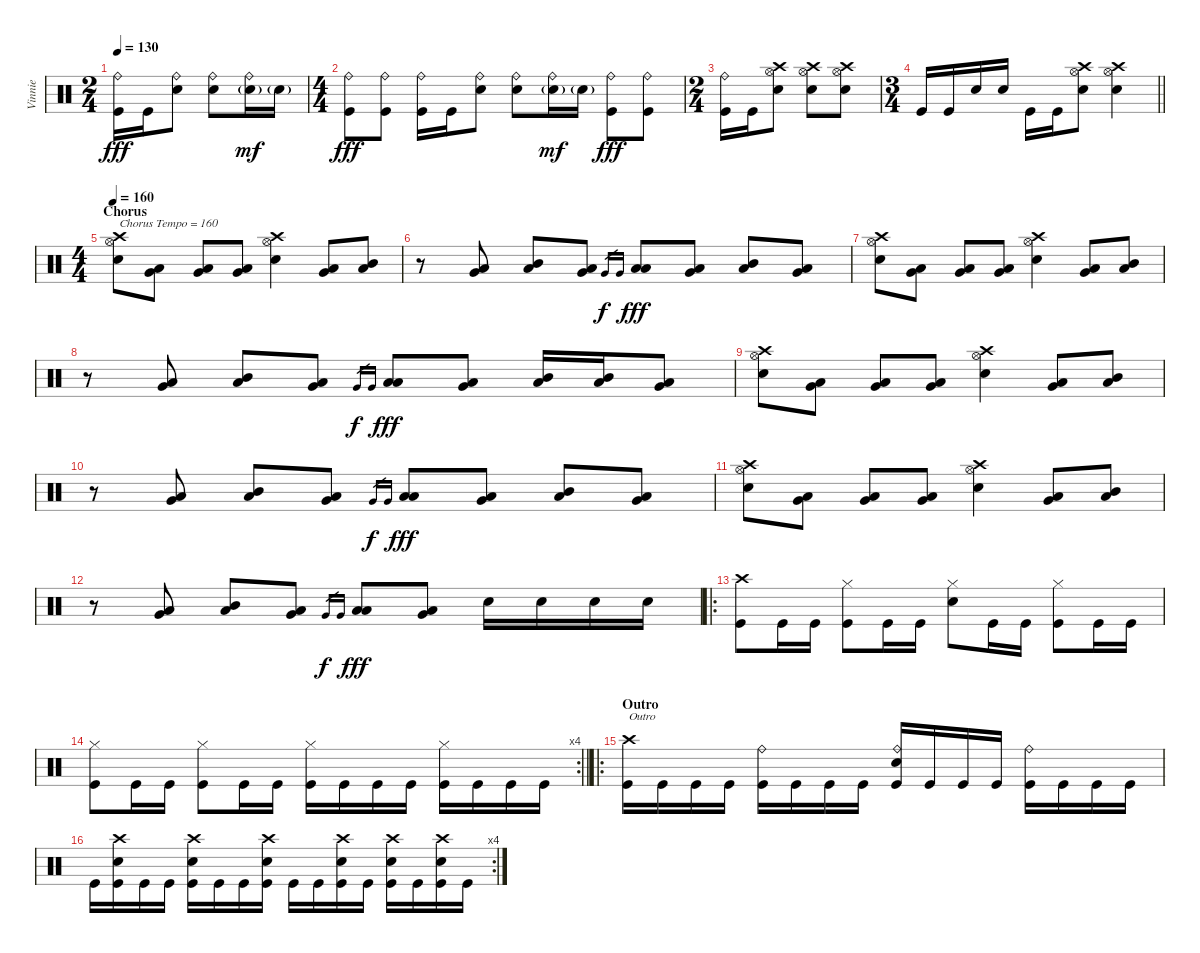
\track ("Vinnie" "Vinnie") {instrument percussion}
\staff {score}
\articulation defaults
\ts (2 4)
\tempo 130
\clef neutral
\ks c
("Kick (hit)" "Ride (bell)").16{dy fff} "Kick (hit)".16 ("Electric Snare (hit)" "Ride (bell)").8 ("Electric Snare (hit)" "Ride (bell)").8 ("Electric Snare (hit)"{g} "Ride (bell)").16{dy mf} "Electric Snare (hit)"{g}.16 |
\ts (4 4)
("Kick (hit)" "Ride (bell)").8{dy fff} ("Kick (hit)" "Ride (bell)").8 ("Kick (hit)" "Ride (bell)").16 "Kick (hit)".16 ("Electric Snare (hit)" "Ride (bell)").8 ("Electric Snare (hit)" "Ride (bell)").8 ("Electric Snare (hit)"{g} "Ride (bell)").16{dy mf} "Electric Snare (hit)"{g}.16 ("Kick (hit)" "Ride (bell)").8{dy fff} ("Kick (hit)" "Ride (bell)").8 |
\ts (2 4)
("Kick (hit)" "Ride (bell)").16 "Kick (hit)".16 ("Electric Snare (hit)" "Crash high (hit)" "Hi-Hat (open)").8 ("Electric Snare (hit)" "Crash high (hit)" "Hi-Hat (open)").8 ("Electric Snare (hit)" "Crash high (hit)" "Hi-Hat (open)").8 |
\ts (3 4)
\barLineRight lightlight "Kick (hit)".16 "Kick (hit)".16 "Electric Snare (hit)".16 "Electric Snare (hit)".16 "Kick (hit)".16 "Kick (hit)".16
("Electric Snare (hit)" "Crash high (hit)" "Hi-Hat (open)").8 ("Electric Snare (hit)" "Crash high (hit)" "Hi-Hat (open)").4 |
\ts (4 4)
\section ("" "Chorus")
\tempo 160
("Electric Snare (hit)" "Crash high (hit)" "Hi-Hat (open)").8{txt "Chorus Tempo = 160"} ("Low Tom (hit)" "Very Low Tom (hit)").8 ("Low Tom (hit)" "Very Low Tom (hit)").8 ("Low Tom (hit)" "Very Low Tom (hit)").8 ("Electric Snare (hit)" "Crash high (hit)" "Hi-Hat (open)").4 ("Low Tom (hit)" "Very Low Tom (hit)").8 ("Mid Tom (hit)" "Low Tom (hit)").8 |
r.8 ("Low Tom (hit)" "Very Low Tom (hit)").8 ("Mid Tom (hit)" "Low Tom (hit)").8 ("Low Tom (hit)" "Very Low Tom (hit)").8 "Very Low Tom (hit)".16{gr dy f} "Very Low Tom (hit)".16{gr} ("Low Tom (hit)" "Low Tom (hit)").8{dy fff} ("Low Tom (hit)" "Very Low Tom (hit)").8 ("Mid Tom (hit)" "Low Tom (hit)").8 ("Low Tom (hit)" "Very Low Tom (hit)").8 |
("Electric Snare (hit)" "Crash high (hit)" "Hi-Hat (open)").8 ("Low Tom (hit)" "Very Low Tom (hit)").8 ("Low Tom (hit)" "Very Low Tom (hit)").8 ("Low Tom (hit)" "Very Low Tom (hit)").8 ("Electric Snare (hit)" "Crash high (hit)" "Hi-Hat (open)").4 ("Low Tom (hit)" "Very Low Tom (hit)").8 ("Mid Tom (hit)" "Low Tom (hit)").8 |
r.8 ("Low Tom (hit)" "Very Low Tom (hit)").8 ("Mid Tom (hit)" "Low Tom (hit)").8 ("Low Tom (hit)" "Very Low Tom (hit)").8 "Very Low Tom (hit)".16{gr dy f} "Very Low Tom (hit)".16{gr} ("Low Tom (hit)" "Low Tom (hit)").8{dy fff} ("Low Tom (hit)" "Very Low Tom (hit)").8 ("Mid Tom (hit)" "Low Tom (hit)").16 ("Mid Tom (hit)" "Low Tom (hit)").16 ("Low Tom (hit)" "Very Low Tom (hit)").8 |
("Electric Snare (hit)" "Crash high (hit)" "Hi-Hat (open)").8 ("Low Tom (hit)" "Very Low Tom (hit)").8 ("Low Tom (hit)" "Very Low Tom (hit)").8 ("Low Tom (hit)" "Very Low Tom (hit)").8 ("Electric Snare (hit)" "Crash high (hit)" "Hi-Hat (open)").4 ("Low Tom (hit)" "Very Low Tom (hit)").8 ("Mid Tom (hit)" "Low Tom (hit)").8 |
r.8 ("Low Tom (hit)" "Very Low Tom (hit)").8 ("Mid Tom (hit)" "Low Tom (hit)").8 ("Low Tom (hit)" "Very Low Tom (hit)").8 "Very Low Tom (hit)".16{gr dy f} "Very Low Tom (hit)".16{gr} ("Low Tom (hit)" "Low Tom (hit)").8{dy fff} ("Low Tom (hit)" "Very Low Tom (hit)").8 ("Mid Tom (hit)" "Low Tom (hit)").8 ("Low Tom (hit)" "Very Low Tom (hit)").8 |
("Electric Snare (hit)" "Crash high (hit)" "Hi-Hat (open)").8 ("Low Tom (hit)" "Very Low Tom (hit)").8 ("Low Tom (hit)" "Very Low Tom (hit)").8 ("Low Tom (hit)" "Very Low Tom (hit)").8 ("Electric Snare (hit)" "Crash high (hit)" "Hi-Hat (open)").4 ("Low Tom (hit)" "Very Low Tom (hit)").8 ("Mid Tom (hit)" "Low Tom (hit)").8 |
r.8 ("Low Tom (hit)" "Very Low Tom (hit)").8 ("Mid Tom (hit)" "Low Tom (hit)").8 ("Low Tom (hit)" "Very Low Tom (hit)").8 "Very Low Tom (hit)".16{gr dy f} "Very Low Tom (hit)".16{gr} ("Low Tom (hit)" "Low Tom (hit)").8{dy fff} ("Low Tom (hit)" "Very Low Tom (hit)").8 "Electric Snare (hit)".16 "Electric Snare (hit)".16 "Electric Snare (hit)".16 "Electric Snare (hit)".16 |
\ro
("Kick (hit)" "Crash high (hit)").8 "Kick (hit)".16 "Kick (hit)".16 ("Kick (hit)" "Hi-Hat (closed)").8 "Kick (hit)".16 "Kick (hit)".16 ("Electric Snare (hit)" "Hi-Hat (closed)").8 "Kick (hit)".16 "Kick (hit)".16 ("Kick (hit)" "Hi-Hat (closed)").8 "Kick (hit)".16 "Kick (hit)".16 |
\rc 4
\barLineRight lightlight
("Kick (hit)" "Hi-Hat (closed)").8 "Kick (hit)".16 "Kick (hit)".16 ("Kick (hit)" "Hi-Hat (closed)").8 "Kick (hit)".16 "Kick (hit)".16 ("Kick (hit)" "Hi-Hat (closed)").16 "Kick (hit)".16 "Kick (hit)".16 "Kick (hit)".16 ("Kick (hit)" "Hi-Hat (closed)").16 "Kick (hit)".16 "Kick (hit)".16 "Kick (hit)".16 |
\ro
\section ("" "Outro")
("Kick (hit)" "Crash high (hit)").16{txt "Outro"} "Kick (hit)".16 "Kick (hit)".16 "Kick (hit)".16 ("Kick (hit)" "Ride (bell)").16 "Kick (hit)".16 "Kick (hit)".16 "Kick (hit)".16 ("Electric Snare (hit)" "Kick (hit)" "Ride (bell)").16 "Kick (hit)".16 "Kick (hit)".16 "Kick (hit)".16 ("Kick (hit)" "Ride (bell)").16 "Kick (hit)".16 "Kick (hit)".16 "Kick (hit)".16 |
\rc 4 "Kick (hit)".16
("Electric Snare (hit)" "Kick (hit)" "Crash high (hit)").16 "Kick (hit)".16 "Kick (hit)".16 ("Electric Snare (hit)" "Kick (hit)" "Crash high (hit)").16 "Kick (hit)".16 "Kick (hit)".16 ("Electric Snare (hit)" "Kick (hit)" "Crash high (hit)").16 "Kick (hit)".16 "Kick (hit)".16 ("Electric Snare (hit)" "Kick (hit)" "Crash high (hit)").16 "Kick (hit)".16 ("Electric Snare (hit)" "Kick (hit)" "Crash high (hit)").16 "Kick (hit)".16 ("Electric Snare (hit)" "Kick (hit)" "Crash high (hit)").16 "Kick (hit)".16
